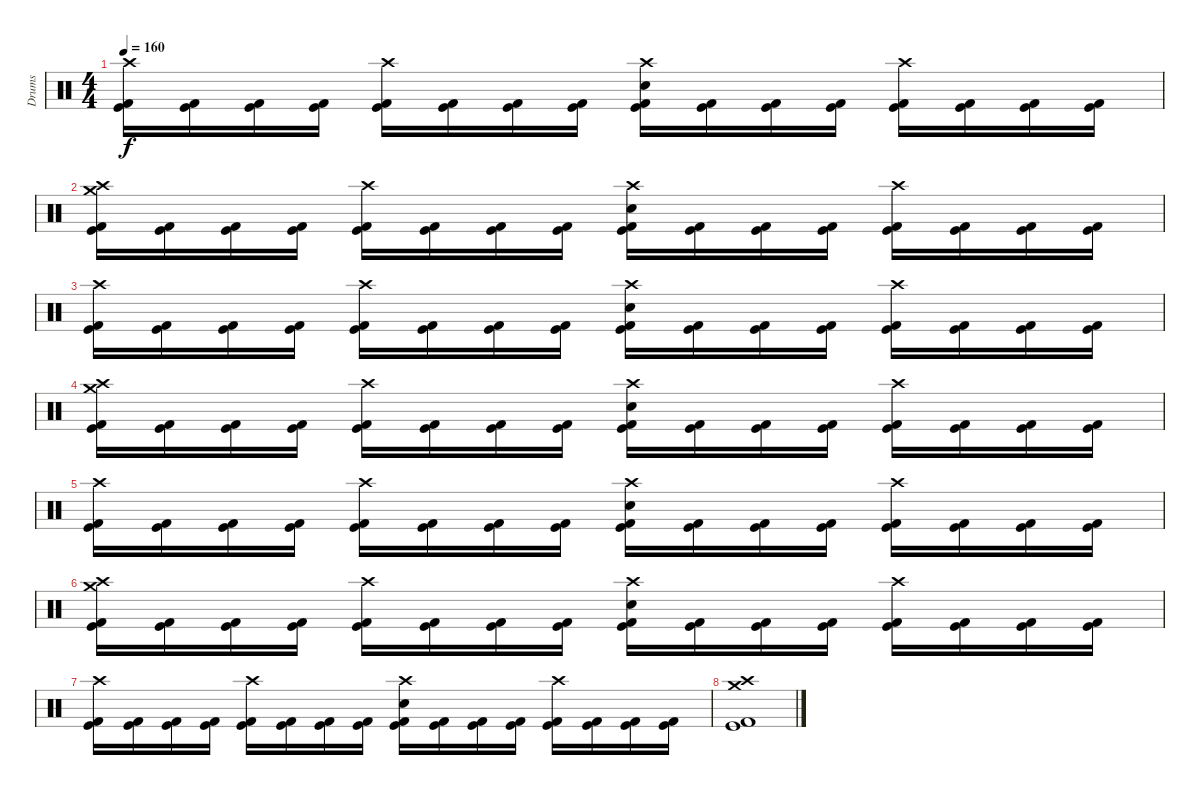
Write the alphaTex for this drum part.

\track ("Drums" "Drums") {instrument percussion}
\staff {score}
\articulation defaults
\ts (4 4)
\tempo 160
\clef neutral
\ks c
("Crash high (hit)" "Kick (hit)" "Kick (hit) 2").16{dy f} ("Kick (hit)" "Kick (hit) 2").16 ("Kick (hit)" "Kick (hit) 2").16 ("Kick (hit)" "Kick (hit) 2").16 ("Crash high (hit)" "Kick (hit)" "Kick (hit) 2").16 ("Kick (hit)" "Kick (hit) 2").16 ("Kick (hit)" "Kick (hit) 2").16 ("Kick (hit)" "Kick (hit) 2").16 ("Crash high (hit)" "Snare (hit) 2" "Kick (hit)" "Kick (hit) 2").16 ("Kick (hit)" "Kick (hit) 2").16 ("Kick (hit)" "Kick (hit) 2").16 ("Kick (hit)" "Kick (hit) 2").16 ("Crash high (hit)" "Kick (hit)" "Kick (hit) 2").16 ("Kick (hit)" "Kick (hit) 2").16 ("Kick (hit)" "Kick (hit) 2").16 ("Kick (hit)" "Kick (hit) 2").16 |
("Crash medium (hit)" "Crash high (hit)" "Kick (hit)" "Kick (hit) 2").16 ("Kick (hit)" "Kick (hit) 2").16 ("Kick (hit)" "Kick (hit) 2").16 ("Kick (hit)" "Kick (hit) 2").16 ("Crash high (hit)" "Kick (hit)" "Kick (hit) 2").16 ("Kick (hit)" "Kick (hit) 2").16 ("Kick (hit)" "Kick (hit) 2").16 ("Kick (hit)" "Kick (hit) 2").16 ("Crash high (hit)" "Snare (hit) 2" "Kick (hit)" "Kick (hit) 2").16 ("Kick (hit)" "Kick (hit) 2").16 ("Kick (hit)" "Kick (hit) 2").16 ("Kick (hit)" "Kick (hit) 2").16 ("Crash high (hit)" "Kick (hit)" "Kick (hit) 2").16 ("Kick (hit)" "Kick (hit) 2").16 ("Kick (hit)" "Kick (hit) 2").16 ("Kick (hit)" "Kick (hit) 2").16 |
("Crash high (hit)" "Kick (hit)" "Kick (hit) 2").16 ("Kick (hit)" "Kick (hit) 2").16 ("Kick (hit)" "Kick (hit) 2").16 ("Kick (hit)" "Kick (hit) 2").16 ("Crash high (hit)" "Kick (hit)" "Kick (hit) 2").16 ("Kick (hit)" "Kick (hit) 2").16 ("Kick (hit)" "Kick (hit) 2").16 ("Kick (hit)" "Kick (hit) 2").16 ("Crash high (hit)" "Snare (hit) 2" "Kick (hit)" "Kick (hit) 2").16 ("Kick (hit)" "Kick (hit) 2").16 ("Kick (hit)" "Kick (hit) 2").16 ("Kick (hit)" "Kick (hit) 2").16 ("Crash high (hit)" "Kick (hit)" "Kick (hit) 2").16 ("Kick (hit)" "Kick (hit) 2").16 ("Kick (hit)" "Kick (hit) 2").16 ("Kick (hit)" "Kick (hit) 2").16 |
("Crash medium (hit)" "Crash high (hit)" "Kick (hit)" "Kick (hit) 2").16 ("Kick (hit)" "Kick (hit) 2").16 ("Kick (hit)" "Kick (hit) 2").16 ("Kick (hit)" "Kick (hit) 2").16 ("Crash high (hit)" "Kick (hit)" "Kick (hit) 2").16 ("Kick (hit)" "Kick (hit) 2").16 ("Kick (hit)" "Kick (hit) 2").16 ("Kick (hit)" "Kick (hit) 2").16 ("Crash high (hit)" "Snare (hit) 2" "Kick (hit)" "Kick (hit) 2").16 ("Kick (hit)" "Kick (hit) 2").16 ("Kick (hit)" "Kick (hit) 2").16 ("Kick (hit)" "Kick (hit) 2").16 ("Crash high (hit)" "Kick (hit)" "Kick (hit) 2").16 ("Kick (hit)" "Kick (hit) 2").16 ("Kick (hit)" "Kick (hit) 2").16 ("Kick (hit)" "Kick (hit) 2").16 |
("Crash high (hit)" "Kick (hit)" "Kick (hit) 2").16 ("Kick (hit)" "Kick (hit) 2").16 ("Kick (hit)" "Kick (hit) 2").16 ("Kick (hit)" "Kick (hit) 2").16 ("Crash high (hit)" "Kick (hit)" "Kick (hit) 2").16 ("Kick (hit)" "Kick (hit) 2").16 ("Kick (hit)" "Kick (hit) 2").16 ("Kick (hit)" "Kick (hit) 2").16 ("Crash high (hit)" "Snare (hit) 2" "Kick (hit)" "Kick (hit) 2").16 ("Kick (hit)" "Kick (hit) 2").16 ("Kick (hit)" "Kick (hit) 2").16 ("Kick (hit)" "Kick (hit) 2").16 ("Crash high (hit)" "Kick (hit)" "Kick (hit) 2").16 ("Kick (hit)" "Kick (hit) 2").16 ("Kick (hit)" "Kick (hit) 2").16 ("Kick (hit)" "Kick (hit) 2").16 |
("Crash medium (hit)" "Crash high (hit)" "Kick (hit)" "Kick (hit) 2").16 ("Kick (hit)" "Kick (hit) 2").16 ("Kick (hit)" "Kick (hit) 2").16 ("Kick (hit)" "Kick (hit) 2").16 ("Crash high (hit)" "Kick (hit)" "Kick (hit) 2").16 ("Kick (hit)" "Kick (hit) 2").16 ("Kick (hit)" "Kick (hit) 2").16 ("Kick (hit)" "Kick (hit) 2").16 ("Crash high (hit)" "Snare (hit) 2" "Kick (hit)" "Kick (hit) 2").16 ("Kick (hit)" "Kick (hit) 2").16 ("Kick (hit)" "Kick (hit) 2").16 ("Kick (hit)" "Kick (hit) 2").16 ("Crash high (hit)" "Kick (hit)" "Kick (hit) 2").16 ("Kick (hit)" "Kick (hit) 2").16 ("Kick (hit)" "Kick (hit) 2").16 ("Kick (hit)" "Kick (hit) 2").16 |
("Crash high (hit)" "Kick (hit)" "Kick (hit) 2").16 ("Kick (hit)" "Kick (hit) 2").16 ("Kick (hit)" "Kick (hit) 2").16 ("Kick (hit)" "Kick (hit) 2").16 ("Crash high (hit)" "Kick (hit)" "Kick (hit) 2").16 ("Kick (hit)" "Kick (hit) 2").16 ("Kick (hit)" "Kick (hit) 2").16 ("Kick (hit)" "Kick (hit) 2").16 ("Crash high (hit)" "Snare (hit) 2" "Kick (hit)" "Kick (hit) 2").16 ("Kick (hit)" "Kick (hit) 2").16 ("Kick (hit)" "Kick (hit) 2").16 ("Kick (hit)" "Kick (hit) 2").16 ("Crash high (hit)" "Kick (hit)" "Kick (hit) 2").16 ("Kick (hit)" "Kick (hit) 2").16 ("Kick (hit)" "Kick (hit) 2").16 ("Kick (hit)" "Kick (hit) 2").16 |
("Crash medium (hit)" "Crash high (hit)" "Kick (hit)" "Kick (hit) 2").1
